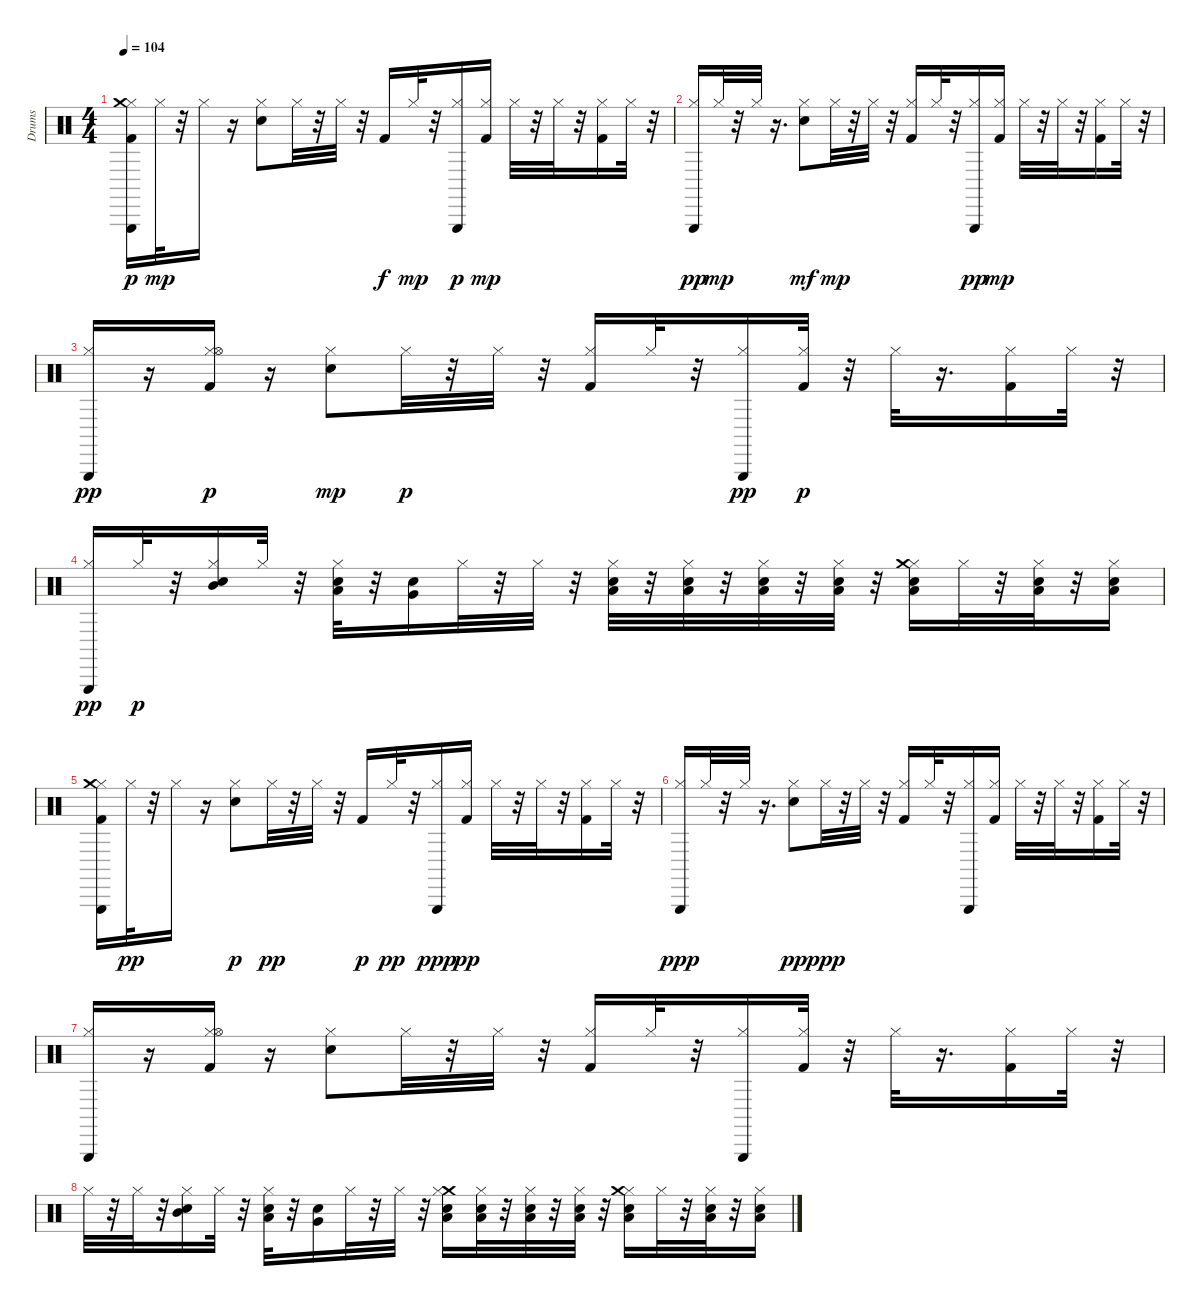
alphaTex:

\track ("Drums" "Drums") {instrument percussion}
\staff {score}
\articulation defaults
\ts (4 4)
\tempo 104
\clef neutral
\ks c
("Kick (hit) 2" "Hi-Hat (closed)" "Triangle (hit)" "Crash medium (hit)").16{dy p} "Hi-Hat (closed)".32{dy mp} r.32 "Hi-Hat (closed)".16 r.16 ("Hi-Hat (closed)" "Snare (hit) 2").8 "Hi-Hat (closed)".32 r.32 "Hi-Hat (closed)".32 r.32 "Kick (hit) 2".16{dy f} "Hi-Hat (closed)".32{dy mp} r.32 ("Hi-Hat (closed)" "Triangle (hit)").16{dy p} ("Kick (hit) 2" "Hi-Hat (closed)").16{dy mp} "Hi-Hat (closed)".32 r.32 "Hi-Hat (closed)".32 r.32 ("Kick (hit) 2" "Hi-Hat (closed)").16 "Hi-Hat (closed)".32 r.32 |
("Hi-Hat (closed)" "Triangle (hit)").16{dy pp} "Hi-Hat (closed)".32{dy mp} r.32 "Hi-Hat (closed)".32 r.16{d} ("Hi-Hat (closed)" "Snare (hit) 2").8{dy mf} "Hi-Hat (closed)".32{dy mp} r.32 "Hi-Hat (closed)".32 r.32 ("Kick (hit) 2" "Hi-Hat (closed)").16 "Hi-Hat (closed)".32 r.32 ("Hi-Hat (closed)" "Triangle (hit)").16{dy pp} ("Kick (hit) 2" "Hi-Hat (closed)").16{dy mp} "Hi-Hat (closed)".32 r.32 "Hi-Hat (closed)".32 r.32 ("Kick (hit) 2" "Hi-Hat (closed)").16 "Hi-Hat (closed)".32 r.32 |
("Hi-Hat (closed)" "Triangle (hit)").16{dy pp} r.16 ("Kick (hit) 2" "Hi-Hat (closed)" "Hi-Hat (open)").16{dy p} r.16 ("Hi-Hat (closed)" "Snare (hit) 2").8{dy mp} "Hi-Hat (closed)".32{dy p} r.32 "Hi-Hat (closed)".32 r.32 ("Kick (hit) 2" "Hi-Hat (closed)").16 "Hi-Hat (closed)".32 r.32 ("Hi-Hat (closed)" "Triangle (hit)").16{dy pp} ("Kick (hit) 2" "Hi-Hat (closed)").32{dy p} r.32 "Hi-Hat (closed)".32 r.16{d} ("Kick (hit) 2" "Hi-Hat (closed)").16 "Hi-Hat (closed)".32 r.32 |
("Hi-Hat (closed)" "Triangle (hit)").16{dy pp} "Hi-Hat (closed)".32{dy p} r.32 ("Hi-Hat (closed)" "Snare (hit) 2" "Mid Tom (hit)").16 "Hi-Hat (closed)".32 r.32 ("Hi-Hat (closed)" "Snare (hit) 2" "Low Tom (hit)").32 r.32 ("Snare (hit) 2" "Very Low Tom (hit)").16 "Hi-Hat (closed)".32 r.32 "Hi-Hat (closed)".32 r.32 ("Hi-Hat (closed)" "Snare (hit) 2" "Low Floor Tom (hit)").32 r.32 ("Hi-Hat (closed)" "Snare (hit) 2" "Low Floor Tom (hit)").32 r.32 ("Hi-Hat (closed)" "Snare (hit) 2" "Low Floor Tom (hit)").32 r.32 ("Hi-Hat (closed)" "Snare (hit) 2" "Low Floor Tom (hit)").32 r.32 ("Hi-Hat (closed)" "Snare (hit) 2" "Low Floor Tom (hit)" "Crash medium (hit)").16 "Hi-Hat (closed)".32 r.32 ("Hi-Hat (closed)" "Snare (hit) 2" "Low Floor Tom (hit)").32 r.32 ("Hi-Hat (closed)" "Snare (hit) 2" "Low Floor Tom (hit)").16 |
("Kick (hit) 2" "Hi-Hat (closed)" "Triangle (hit)" "Crash medium (hit)").16 "Hi-Hat (closed)".32{dy pp} r.32 "Hi-Hat (closed)".16 r.16 ("Hi-Hat (closed)" "Snare (hit) 2").8{dy p} "Hi-Hat (closed)".32{dy pp} r.32 "Hi-Hat (closed)".32 r.32 "Kick (hit) 2".16{dy p} "Hi-Hat (closed)".32{dy pp} r.32 ("Hi-Hat (closed)" "Triangle (hit)").16{dy ppp} ("Kick (hit) 2" "Hi-Hat (closed)").16{dy pp} "Hi-Hat (closed)".32 r.32 "Hi-Hat (closed)".32 r.32 ("Kick (hit) 2" "Hi-Hat (closed)").16 "Hi-Hat (closed)".32 r.32 |
("Hi-Hat (closed)" "Triangle (hit)").16{dy ppp} "Hi-Hat (closed)".32 r.32 "Hi-Hat (closed)".32 r.16{d} ("Hi-Hat (closed)" "Snare (hit) 2").8{dy pp} "Hi-Hat (closed)".32{dy ppp} r.32 "Hi-Hat (closed)".32 r.32 ("Kick (hit) 2" "Hi-Hat (closed)").16 "Hi-Hat (closed)".32 r.32 ("Hi-Hat (closed)" "Triangle (hit)").16 ("Kick (hit) 2" "Hi-Hat (closed)").16 "Hi-Hat (closed)".32 r.32 "Hi-Hat (closed)".32 r.32 ("Kick (hit) 2" "Hi-Hat (closed)").16 "Hi-Hat (closed)".32 r.32 |
("Hi-Hat (closed)" "Triangle (hit)").16 r.16 ("Kick (hit) 2" "Hi-Hat (closed)" "Hi-Hat (open)").16 r.16 ("Hi-Hat (closed)" "Snare (hit) 2").8 "Hi-Hat (closed)".32 r.32 "Hi-Hat (closed)".32 r.32 ("Kick (hit) 2" "Hi-Hat (closed)").16 "Hi-Hat (closed)".32 r.32 ("Hi-Hat (closed)" "Triangle (hit)").16 ("Kick (hit) 2" "Hi-Hat (closed)").32 r.32 "Hi-Hat (closed)".32 r.16{d} ("Kick (hit) 2" "Hi-Hat (closed)").16 "Hi-Hat (closed)".32 r.32 |
"Hi-Hat (closed)".32 r.32 "Hi-Hat (closed)".32 r.32 ("Hi-Hat (closed)" "Snare (hit) 2" "Mid Tom (hit)").16 "Hi-Hat (closed)".32 r.32 ("Hi-Hat (closed)" "Snare (hit) 2" "Low Tom (hit)").32 r.32 ("Snare (hit) 2" "Very Low Tom (hit)").16 "Hi-Hat (closed)".32 r.32 "Hi-Hat (closed)".32 r.32 ("Crash medium (hit)" "Hi-Hat (closed)" "Snare (hit) 2" "Low Floor Tom (hit)").16 ("Hi-Hat (closed)" "Snare (hit) 2" "Low Floor Tom (hit)").32 r.32 ("Hi-Hat (closed)" "Snare (hit) 2" "Low Floor Tom (hit)").32 r.32 ("Hi-Hat (closed)" "Snare (hit) 2" "Low Floor Tom (hit)").32 r.32 ("Hi-Hat (closed)" "Snare (hit) 2" "Low Floor Tom (hit)" "Crash medium (hit)").16 "Hi-Hat (closed)".32 r.32 ("Hi-Hat (closed)" "Snare (hit) 2" "Low Floor Tom (hit)").32 r.32 ("Hi-Hat (closed)" "Snare (hit) 2" "Low Floor Tom (hit)").16
